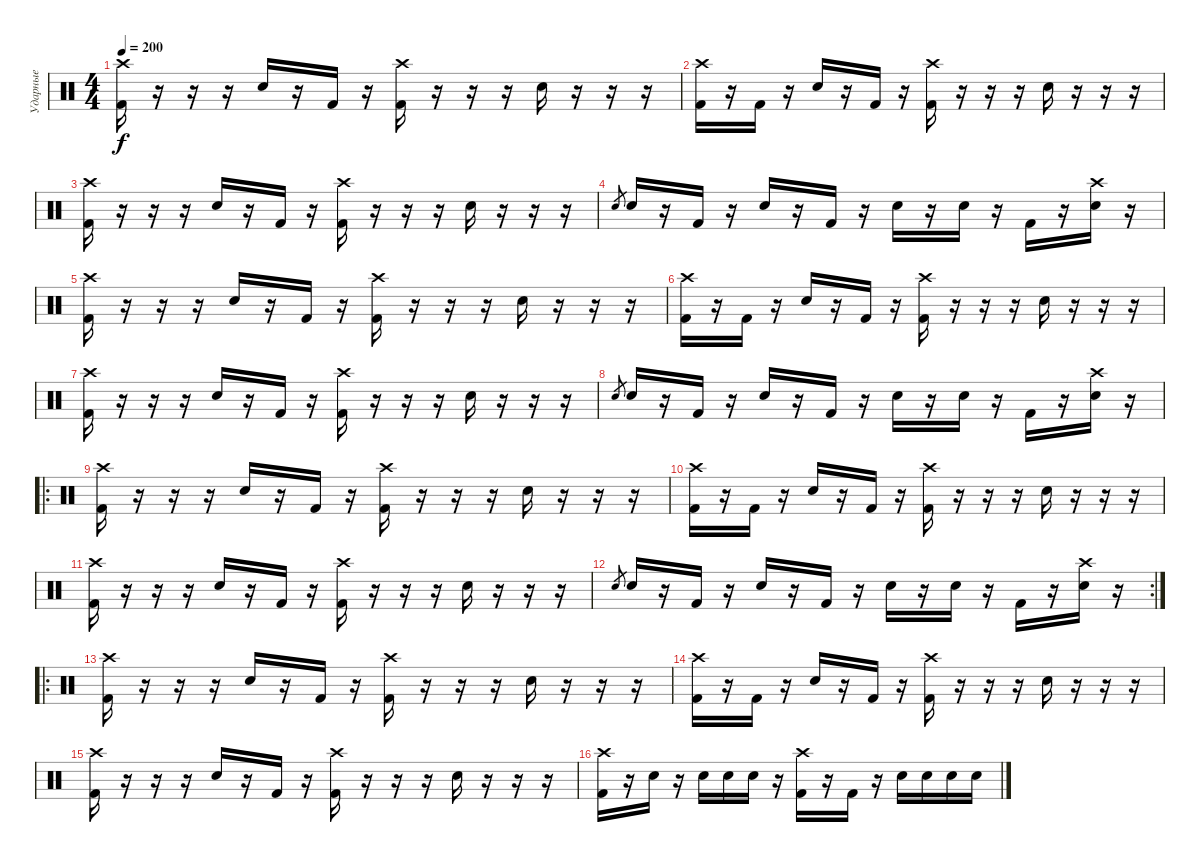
\track ("Ударные" "Ударные") {solo instrument percussion}
\staff {score}
\articulation defaults
\ts (4 4)
\tempo 200
\clef neutral
\ks c
("Crash high (hit)" "Kick (hit) 2").16{dy f} r.16 r.16 r.16 "Electric Snare (hit)".16 r.16 "Kick (hit) 2".16 r.16 ("Crash high (hit)" "Kick (hit) 2").16 r.16 r.16 r.16 "Electric Snare (hit)".16 r.16 r.16 r.16 |
("Crash high (hit)" "Kick (hit) 2").16 r.16 "Kick (hit) 2".16 r.16 "Electric Snare (hit)".16 r.16 "Kick (hit) 2".16 r.16 ("Crash high (hit)" "Kick (hit) 2").16 r.16 r.16 r.16 "Electric Snare (hit)".16 r.16 r.16 r.16 |
("Crash high (hit)" "Kick (hit) 2").16 r.16 r.16 r.16 "Electric Snare (hit)".16 r.16 "Kick (hit) 2".16 r.16 ("Crash high (hit)" "Kick (hit) 2").16 r.16 r.16 r.16 "Electric Snare (hit)".16 r.16 r.16 r.16 |
"Electric Snare (hit)".8{gr} "Electric Snare (hit)".16 r.16 "Kick (hit) 2".16 r.16 "Electric Snare (hit)".16 r.16 "Kick (hit) 2".16 r.16 "Electric Snare (hit)".16 r.16 "Electric Snare (hit)".16 r.16 "Kick (hit) 2".16 r.16 ("Crash high (hit)" "Electric Snare (hit)").16 r.16 |
("Crash high (hit)" "Kick (hit) 2").16 r.16 r.16 r.16 "Electric Snare (hit)".16 r.16 "Kick (hit) 2".16 r.16 ("Crash high (hit)" "Kick (hit) 2").16 r.16 r.16 r.16 "Electric Snare (hit)".16 r.16 r.16 r.16 |
("Crash high (hit)" "Kick (hit) 2").16 r.16 "Kick (hit) 2".16 r.16 "Electric Snare (hit)".16 r.16 "Kick (hit) 2".16 r.16 ("Crash high (hit)" "Kick (hit) 2").16 r.16 r.16 r.16 "Electric Snare (hit)".16 r.16 r.16 r.16 |
("Crash high (hit)" "Kick (hit) 2").16 r.16 r.16 r.16 "Electric Snare (hit)".16 r.16 "Kick (hit) 2".16 r.16 ("Crash high (hit)" "Kick (hit) 2").16 r.16 r.16 r.16 "Electric Snare (hit)".16 r.16 r.16 r.16 |
"Electric Snare (hit)".8{gr} "Electric Snare (hit)".16 r.16 "Kick (hit) 2".16 r.16 "Electric Snare (hit)".16 r.16 "Kick (hit) 2".16 r.16 "Electric Snare (hit)".16 r.16 "Electric Snare (hit)".16 r.16 "Kick (hit) 2".16 r.16 ("Crash high (hit)" "Electric Snare (hit)").16 r.16 |
\ro
("Crash high (hit)" "Kick (hit) 2").16 r.16 r.16 r.16 "Electric Snare (hit)".16 r.16 "Kick (hit) 2".16 r.16 ("Crash high (hit)" "Kick (hit) 2").16 r.16 r.16 r.16 "Electric Snare (hit)".16 r.16 r.16 r.16 |
("Crash high (hit)" "Kick (hit) 2").16 r.16 "Kick (hit) 2".16 r.16 "Electric Snare (hit)".16 r.16 "Kick (hit) 2".16 r.16 ("Crash high (hit)" "Kick (hit) 2").16 r.16 r.16 r.16 "Electric Snare (hit)".16 r.16 r.16 r.16 |
("Crash high (hit)" "Kick (hit) 2").16 r.16 r.16 r.16 "Electric Snare (hit)".16 r.16 "Kick (hit) 2".16 r.16 ("Crash high (hit)" "Kick (hit) 2").16 r.16 r.16 r.16 "Electric Snare (hit)".16 r.16 r.16 r.16 |
\rc 2 "Electric Snare (hit)".8{gr} "Electric Snare (hit)".16
r.16 "Kick (hit) 2".16 r.16 "Electric Snare (hit)".16 r.16 "Kick (hit) 2".16 r.16 "Electric Snare (hit)".16 r.16 "Electric Snare (hit)".16 r.16 "Kick (hit) 2".16 r.16 ("Crash high (hit)" "Electric Snare (hit)").16 r.16 |
\ro
("Crash high (hit)" "Kick (hit) 2").16 r.16 r.16 r.16 "Electric Snare (hit)".16 r.16 "Kick (hit) 2".16 r.16 ("Crash high (hit)" "Kick (hit) 2").16 r.16 r.16 r.16 "Electric Snare (hit)".16 r.16 r.16 r.16 |
("Crash high (hit)" "Kick (hit) 2").16 r.16 "Kick (hit) 2".16 r.16 "Electric Snare (hit)".16 r.16 "Kick (hit) 2".16 r.16 ("Crash high (hit)" "Kick (hit) 2").16 r.16 r.16 r.16 "Electric Snare (hit)".16 r.16 r.16 r.16 |
("Crash high (hit)" "Kick (hit) 2").16 r.16 r.16 r.16 "Electric Snare (hit)".16 r.16 "Kick (hit) 2".16 r.16 ("Crash high (hit)" "Kick (hit) 2").16 r.16 r.16 r.16 "Electric Snare (hit)".16 r.16 r.16 r.16 |
("Crash high (hit)" "Kick (hit) 2").16 r.16 "Electric Snare (hit)".16 r.16 "Electric Snare (hit)".16 "Electric Snare (hit)".16 "Electric Snare (hit)".16 r.16 ("Crash high (hit)" "Kick (hit) 2").16 r.16 "Kick (hit) 2".16 r.16 "Electric Snare (hit)".16 "Electric Snare (hit)".16 "Electric Snare (hit)".16 "Electric Snare (hit)".16
